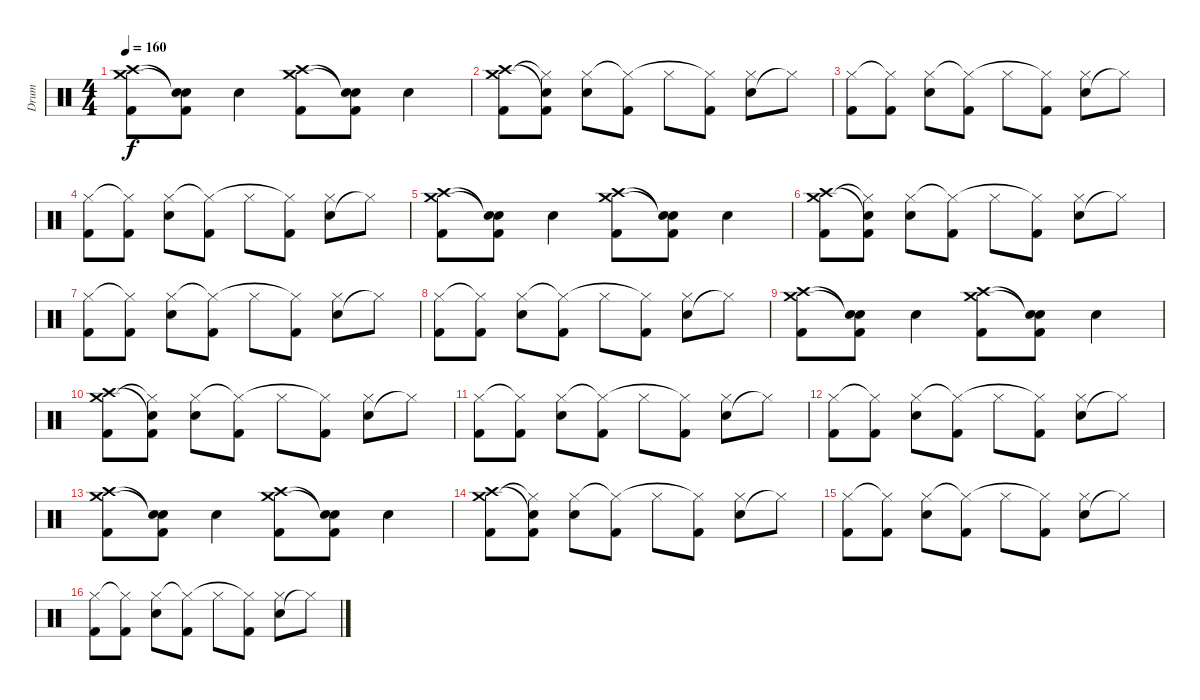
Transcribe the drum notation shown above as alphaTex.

\track ("Drum" "Drum") {instrument percussion}
\staff {score}
\articulation defaults
\ts (4 4)
\tempo 160
\clef neutral
\ks c
("Kick (hit) 2" "Crash high (hit)" "Crash medium (hit)").8{dy f} ("Kick (hit) 2" "Electric Snare (hit)"{t} "Snare (hit)"{t}).8 "Electric Snare (hit)".4 ("Kick (hit) 2" "Crash high (hit)" "Crash medium (hit)").8 ("Kick (hit) 2" "Snare (hit)"{t} "Snare (hit)"{t}).8 "Electric Snare (hit)".4 |
\section ("" "")
("Kick (hit) 2" "Crash high (hit)" "Crash medium (hit)").8 ("Kick (hit) 2" "Snare (hit)"{t} "Hi-Hat (closed)"{t}).8 ("Electric Snare (hit)" "Hi-Hat (closed)").8 ("Kick (hit) 2" "Hi-Hat (closed)"{t}).8 "Hi-Hat (closed)".8 ("Kick (hit) 2" "Hi-Hat (closed)"{t}).8 ("Electric Snare (hit)" "Hi-Hat (closed)").8 "Hi-Hat (closed)"{t}.8 |
("Kick (hit) 2" "Hi-Hat (closed)").8 ("Kick (hit) 2" "Hi-Hat (closed)"{t}).8 ("Electric Snare (hit)" "Hi-Hat (closed)").8 ("Kick (hit) 2" "Hi-Hat (closed)"{t}).8 "Hi-Hat (closed)".8 ("Kick (hit) 2" "Hi-Hat (closed)"{t}).8 ("Electric Snare (hit)" "Hi-Hat (closed)").8 "Hi-Hat (closed)"{t}.8 |
("Kick (hit) 2" "Hi-Hat (closed)").8 ("Kick (hit) 2" "Hi-Hat (closed)"{t}).8 ("Electric Snare (hit)" "Hi-Hat (closed)").8 ("Kick (hit) 2" "Hi-Hat (closed)"{t}).8 "Hi-Hat (closed)".8 ("Kick (hit) 2" "Hi-Hat (closed)"{t}).8 ("Electric Snare (hit)" "Hi-Hat (closed)").8 "Hi-Hat (closed)"{t}.8 |
("Kick (hit) 2" "Crash high (hit)" "Crash medium (hit)").8 ("Kick (hit) 2" "Electric Snare (hit)"{t} "Snare (hit)"{t}).8 "Electric Snare (hit)".4 ("Kick (hit) 2" "Crash high (hit)" "Crash medium (hit)").8 ("Kick (hit) 2" "Snare (hit)"{t} "Snare (hit)"{t}).8 "Electric Snare (hit)".4 |
("Kick (hit) 2" "Crash high (hit)" "Crash medium (hit)").8 ("Kick (hit) 2" "Snare (hit)"{t} "Hi-Hat (closed)"{t}).8 ("Electric Snare (hit)" "Hi-Hat (closed)").8 ("Kick (hit) 2" "Hi-Hat (closed)"{t}).8 "Hi-Hat (closed)".8 ("Kick (hit) 2" "Hi-Hat (closed)"{t}).8 ("Electric Snare (hit)" "Hi-Hat (closed)").8 "Hi-Hat (closed)"{t}.8 |
("Kick (hit) 2" "Hi-Hat (closed)").8 ("Kick (hit) 2" "Hi-Hat (closed)"{t}).8 ("Electric Snare (hit)" "Hi-Hat (closed)").8 ("Kick (hit) 2" "Hi-Hat (closed)"{t}).8 "Hi-Hat (closed)".8 ("Kick (hit) 2" "Hi-Hat (closed)"{t}).8 ("Electric Snare (hit)" "Hi-Hat (closed)").8 "Hi-Hat (closed)"{t}.8 |
("Kick (hit) 2" "Hi-Hat (closed)").8 ("Kick (hit) 2" "Hi-Hat (closed)"{t}).8 ("Electric Snare (hit)" "Hi-Hat (closed)").8 ("Kick (hit) 2" "Hi-Hat (closed)"{t}).8 "Hi-Hat (closed)".8 ("Kick (hit) 2" "Hi-Hat (closed)"{t}).8 ("Electric Snare (hit)" "Hi-Hat (closed)").8 "Hi-Hat (closed)"{t}.8 |
("Kick (hit) 2" "Crash high (hit)" "Crash medium (hit)").8 ("Kick (hit) 2" "Electric Snare (hit)"{t} "Snare (hit)"{t}).8 "Electric Snare (hit)".4 ("Kick (hit) 2" "Crash high (hit)" "Crash medium (hit)").8 ("Kick (hit) 2" "Snare (hit)"{t} "Snare (hit)"{t}).8 "Electric Snare (hit)".4 |
\section ("" "")
("Kick (hit) 2" "Crash high (hit)" "Crash medium (hit)").8 ("Kick (hit) 2" "Snare (hit)"{t} "Hi-Hat (closed)"{t}).8 ("Electric Snare (hit)" "Hi-Hat (closed)").8 ("Kick (hit) 2" "Hi-Hat (closed)"{t}).8 "Hi-Hat (closed)".8 ("Kick (hit) 2" "Hi-Hat (closed)"{t}).8 ("Electric Snare (hit)" "Hi-Hat (closed)").8 "Hi-Hat (closed)"{t}.8 |
("Kick (hit) 2" "Hi-Hat (closed)").8 ("Kick (hit) 2" "Hi-Hat (closed)"{t}).8 ("Electric Snare (hit)" "Hi-Hat (closed)").8 ("Kick (hit) 2" "Hi-Hat (closed)"{t}).8 "Hi-Hat (closed)".8 ("Kick (hit) 2" "Hi-Hat (closed)"{t}).8 ("Electric Snare (hit)" "Hi-Hat (closed)").8 "Hi-Hat (closed)"{t}.8 |
("Kick (hit) 2" "Hi-Hat (closed)").8 ("Kick (hit) 2" "Hi-Hat (closed)"{t}).8 ("Electric Snare (hit)" "Hi-Hat (closed)").8 ("Kick (hit) 2" "Hi-Hat (closed)"{t}).8 "Hi-Hat (closed)".8 ("Kick (hit) 2" "Hi-Hat (closed)"{t}).8 ("Electric Snare (hit)" "Hi-Hat (closed)").8 "Hi-Hat (closed)"{t}.8 |
("Kick (hit) 2" "Crash high (hit)" "Crash medium (hit)").8 ("Kick (hit) 2" "Electric Snare (hit)"{t} "Snare (hit)"{t}).8 "Electric Snare (hit)".4 ("Kick (hit) 2" "Crash high (hit)" "Crash medium (hit)").8 ("Kick (hit) 2" "Snare (hit)"{t} "Snare (hit)"{t}).8 "Electric Snare (hit)".4 |
("Kick (hit) 2" "Crash high (hit)" "Crash medium (hit)").8 ("Kick (hit) 2" "Snare (hit)"{t} "Hi-Hat (closed)"{t}).8 ("Electric Snare (hit)" "Hi-Hat (closed)").8 ("Kick (hit) 2" "Hi-Hat (closed)"{t}).8 "Hi-Hat (closed)".8 ("Kick (hit) 2" "Hi-Hat (closed)"{t}).8 ("Electric Snare (hit)" "Hi-Hat (closed)").8 "Hi-Hat (closed)"{t}.8 |
("Kick (hit) 2" "Hi-Hat (closed)").8 ("Kick (hit) 2" "Hi-Hat (closed)"{t}).8 ("Electric Snare (hit)" "Hi-Hat (closed)").8 ("Kick (hit) 2" "Hi-Hat (closed)"{t}).8 "Hi-Hat (closed)".8 ("Kick (hit) 2" "Hi-Hat (closed)"{t}).8 ("Electric Snare (hit)" "Hi-Hat (closed)").8 "Hi-Hat (closed)"{t}.8 |
("Kick (hit) 2" "Hi-Hat (closed)").8 ("Kick (hit) 2" "Hi-Hat (closed)"{t}).8 ("Electric Snare (hit)" "Hi-Hat (closed)").8 ("Kick (hit) 2" "Hi-Hat (closed)"{t}).8 "Hi-Hat (closed)".8 ("Kick (hit) 2" "Hi-Hat (closed)"{t}).8 ("Electric Snare (hit)" "Hi-Hat (closed)").8 "Hi-Hat (closed)"{t}.8
